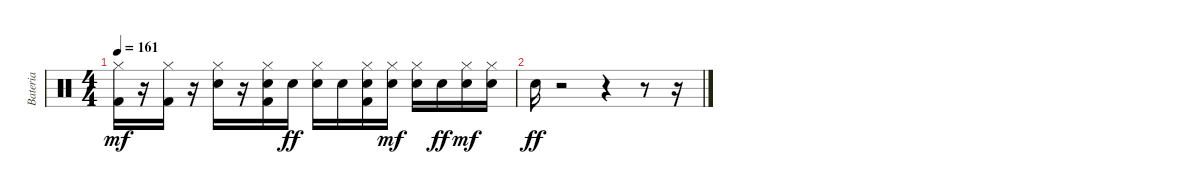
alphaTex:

\track ("Bateria" "Bateria") {instrument percussion}
\staff {score}
\articulation defaults
\ts (4 4)
\tempo 161
\clef neutral
\ks c
("Kick (hit) 2" "Hi-Hat (closed)").16{dy mf} r.16 ("Hi-Hat (closed)" "Kick (hit) 2").16 r.16 ("Electric Snare (hit)" "Hi-Hat (closed)").16 r.16 ("Electric Snare (hit)" "Hi-Hat (closed)" "Kick (hit) 2").16 "Electric Snare (hit)".16{dy ff} ("Hi-Hat (closed)" "Electric Snare (hit)").16 "Electric Snare (hit)".16 ("Kick (hit) 2" "Hi-Hat (closed)" "Electric Snare (hit)").16 ("Electric Snare (hit)" "Hi-Hat (closed)").16{dy mf} ("Electric Snare (hit)" "Hi-Hat (closed)").16 "Electric Snare (hit)".16{dy ff} ("Electric Snare (hit)" "Hi-Hat (closed)").16{dy mf} ("Electric Snare (hit)" "Hi-Hat (closed)").16 |
"Electric Snare (hit)".16{dy ff} r.2 r.4 r.8 r.16
